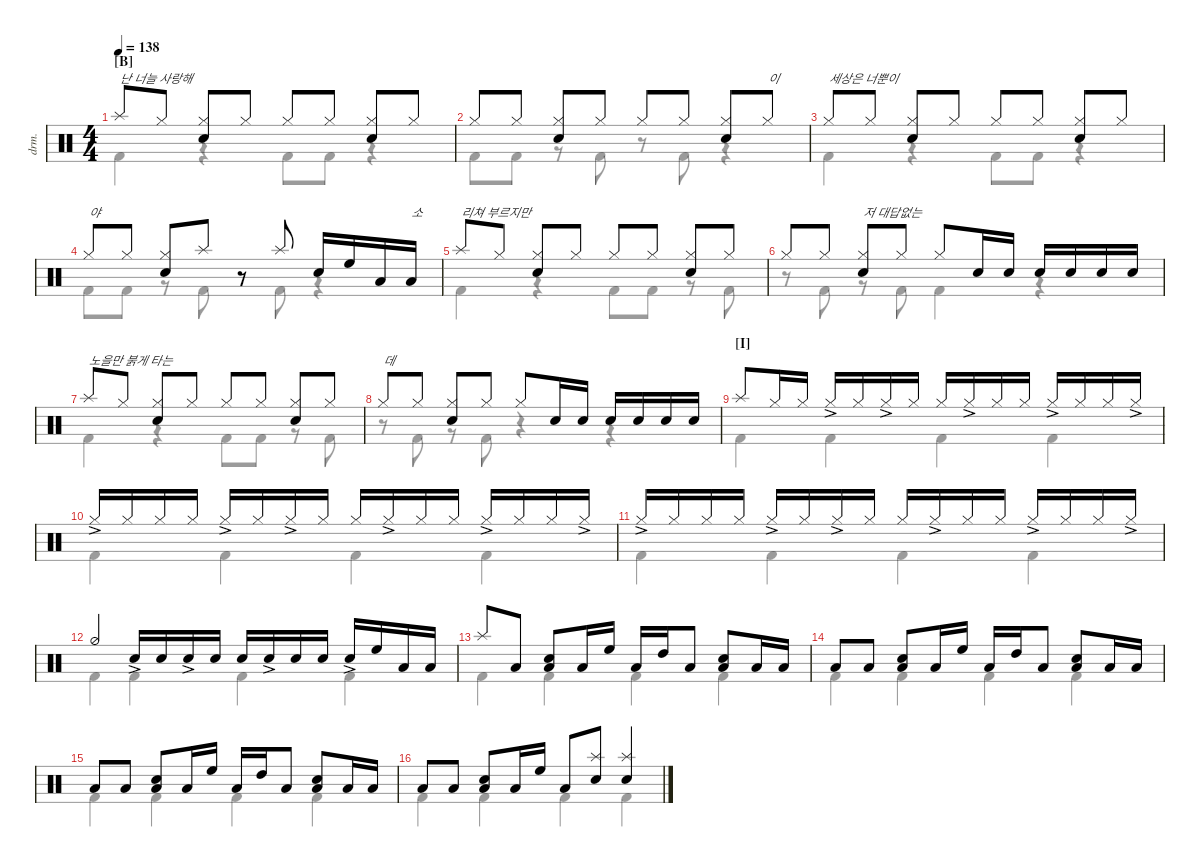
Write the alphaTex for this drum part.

\defaultSystemsLayout 4
\hideDynamics
\bracketExtendMode nobrackets
\track ("Drumkit" "drm.") {instrument percussion}
\staff {score}
\articulation defaults
\voice
\ts (4 4)
\section ("B" "")
\tempo 138
\clef neutral
\ks c "Splash (hit)".8{txt "난 너늘 사랑해" dy mf beam Up} "Hi-Hat (closed)".8{beam Up}
("Hi-Hat (closed)" "Snare (hit) 2").8{beam Up} "Hi-Hat (closed)".8{beam Up} "Hi-Hat (closed)".8{beam Up} "Hi-Hat (closed)".8{beam Up} ("Hi-Hat (closed)" "Snare (hit) 2").8{beam Up} "Hi-Hat (closed)".8{beam Up} |
"Hi-Hat (closed)".8{beam Up} "Hi-Hat (closed)".8{beam Up} ("Hi-Hat (closed)" "Snare (hit) 2").8{beam Up} "Hi-Hat (closed)".8{beam Up} "Hi-Hat (closed)".8{beam Up} "Hi-Hat (closed)".8{beam Up} ("Hi-Hat (closed)" "Snare (hit) 2").8{beam Up} "Hi-Hat (closed)".8{txt "이" beam Up} |
"Hi-Hat (closed)".8{txt "세상은 너뿐이" beam Up} "Hi-Hat (closed)".8{beam Up} ("Hi-Hat (closed)" "Snare (hit) 2").8{beam Up} "Hi-Hat (closed)".8{beam Up} "Hi-Hat (closed)".8{beam Up} "Hi-Hat (closed)".8{beam Up} ("Hi-Hat (closed)" "Snare (hit) 2").8{beam Up} "Hi-Hat (closed)".8{beam Up} |
"Hi-Hat (closed)".8{txt "야" beam Up} "Hi-Hat (closed)".8{beam Up} ("Hi-Hat (closed)" "Snare (hit) 2").8{beam Up} "Splash (hit)".8{beam Up} r.8{beam Up} "Splash (hit)".8{beam Up} "Snare (hit) 2".16{beam Up} "High Floor Tom (hit)".16{beam Up} "Low Tom (hit)".16{beam Up} "Low Tom (hit)".16{txt "소" beam Up} |
"Splash (hit)".8{txt "리쳐 부르지만" beam Up} "Hi-Hat (closed)".8{beam Up} ("Hi-Hat (closed)" "Snare (hit) 2").8{beam Up} "Hi-Hat (closed)".8{beam Up} "Hi-Hat (closed)".8{beam Up} "Hi-Hat (closed)".8{beam Up} ("Hi-Hat (closed)" "Snare (hit) 2").8{beam Up} "Hi-Hat (closed)".8{beam Up} |
"Hi-Hat (closed)".8{beam Up} "Hi-Hat (closed)".8{beam Up} ("Hi-Hat (closed)" "Snare (hit) 2").8{txt "저 대답없는" beam Up} "Hi-Hat (closed)".8{beam Up} "Hi-Hat (closed)".8{beam Up} "Snare (hit) 2".16{beam Up} "Snare (hit) 2".16{beam Up} "Snare (hit) 2".16{beam Up} "Snare (hit) 2".16{beam Up} "Snare (hit) 2".16{beam Up} "Snare (hit) 2".16{beam Up} |
"Splash (hit)".8{txt "노을만 붉게 타는" beam Up} "Hi-Hat (closed)".8{beam Up} ("Hi-Hat (closed)" "Snare (hit) 2").8{beam Up} "Hi-Hat (closed)".8{beam Up} "Hi-Hat (closed)".8{beam Up} "Hi-Hat (closed)".8{beam Up} ("Hi-Hat (closed)" "Snare (hit) 2").8{beam Up} "Hi-Hat (closed)".8{beam Up} |
"Hi-Hat (closed)".8{txt "데" beam Up} "Hi-Hat (closed)".8{beam Up} ("Hi-Hat (closed)" "Snare (hit) 2").8{beam Up} "Hi-Hat (closed)".8{beam Up} "Hi-Hat (closed)".8{beam Up} "Snare (hit) 2".16{beam Up} "Snare (hit) 2".16{beam Up} "Snare (hit) 2".16{beam Up} "Snare (hit) 2".16{beam Up} "Snare (hit) 2".16{beam Up} "Snare (hit) 2".16{beam Up} |
\section ("I" "")
"Splash (hit)".8{beam Up} "Hi-Hat (closed)".16{beam Up} "Hi-Hat (closed)".16{beam Up} "Hi-Hat (closed)"{ac}.16{beam Up} "Hi-Hat (closed)".16{beam Up} "Hi-Hat (closed)"{ac}.16{beam Up} "Hi-Hat (closed)".16{beam Up} "Hi-Hat (closed)".16{beam Up} "Hi-Hat (closed)"{ac}.16{beam Up} "Hi-Hat (closed)".16{beam Up} "Hi-Hat (closed)".16{beam Up} "Hi-Hat (closed)"{ac}.16{beam Up} "Hi-Hat (closed)".16{beam Up} "Hi-Hat (closed)".16{beam Up} "Hi-Hat (closed)"{ac}.16{beam Up} |
"Hi-Hat (closed)"{ac}.16{beam Up} "Hi-Hat (closed)".16{beam Up} "Hi-Hat (closed)".16{beam Up} "Hi-Hat (closed)".16{beam Up} "Hi-Hat (closed)"{ac}.16{beam Up} "Hi-Hat (closed)".16{beam Up} "Hi-Hat (closed)"{ac}.16{beam Up} "Hi-Hat (closed)".16{beam Up} "Hi-Hat (closed)".16{beam Up} "Hi-Hat (closed)"{ac}.16{beam Up} "Hi-Hat (closed)".16{beam Up} "Hi-Hat (closed)".16{beam Up} "Hi-Hat (closed)"{ac}.16{beam Up} "Hi-Hat (closed)".16{beam Up} "Hi-Hat (closed)".16{beam Up} "Hi-Hat (closed)"{ac}.16{beam Up} |
"Hi-Hat (closed)"{ac}.16{beam Up} "Hi-Hat (closed)".16{beam Up} "Hi-Hat (closed)".16{beam Up} "Hi-Hat (closed)".16{beam Up} "Hi-Hat (closed)"{ac}.16{beam Up} "Hi-Hat (closed)".16{beam Up} "Hi-Hat (closed)"{ac}.16{beam Up} "Hi-Hat (closed)".16{beam Up} "Hi-Hat (closed)".16{beam Up} "Hi-Hat (closed)"{ac}.16{beam Up} "Hi-Hat (closed)".16{beam Up} "Hi-Hat (closed)".16{beam Up} "Hi-Hat (closed)"{ac}.16{beam Up} "Hi-Hat (closed)".16{beam Up} "Hi-Hat (closed)".16{beam Up} "Hi-Hat (closed)"{ac}.16{beam Up} |
"Hi-Hat (half)".4{beam Up} "Snare (hit) 2"{ac}.16{beam Up} "Snare (hit) 2".16{beam Up} "Snare (hit) 2"{ac}.16{beam Up} "Snare (hit) 2".16{beam Up} "Snare (hit) 2".16{beam Up} "Snare (hit) 2"{ac}.16{beam Up} "Snare (hit) 2".16{beam Up} "Snare (hit) 2".16{beam Up} "Snare (hit) 2"{ac}.16{beam Up} "High Floor Tom (hit)".16{beam Up} "Low Tom (hit)".16{beam Up} "Low Tom (hit)".16{beam Up} |
"Splash (hit)".8{beam Up} "Low Tom (hit)".8{beam Up} ("Low Tom (hit)" "Snare (hit) 2").8{beam Up} "Low Tom (hit)".16{beam Up} "High Floor Tom (hit)".16{beam Up} "Low Tom (hit)".16{beam Up} "High Tom (hit)".16{beam Up} "Low Tom (hit)".8{beam Up} ("Low Tom (hit)" "Snare (hit) 2").8{beam Up} "Low Tom (hit)".16{beam Up} "Low Tom (hit)".16{beam Up} |
"Low Tom (hit)".8{beam Up} "Low Tom (hit)".8{beam Up} ("Low Tom (hit)" "Snare (hit) 2").8{beam Up} "Low Tom (hit)".16{beam Up} "High Floor Tom (hit)".16{beam Up} "Low Tom (hit)".16{beam Up} "High Tom (hit)".16{beam Up} "Low Tom (hit)".8{beam Up} ("Low Tom (hit)" "Snare (hit) 2").8{beam Up} "Low Tom (hit)".16{beam Up} "Low Tom (hit)".16{beam Up} |
"Low Tom (hit)".8{beam Up} "Low Tom (hit)".8{beam Up} ("Low Tom (hit)" "Snare (hit) 2").8{beam Up} "Low Tom (hit)".16{beam Up} "High Floor Tom (hit)".16{beam Up} "Low Tom (hit)".16{beam Up} "High Tom (hit)".16{beam Up} "Low Tom (hit)".8{beam Up} ("Low Tom (hit)" "Snare (hit) 2").8{beam Up} "Low Tom (hit)".16{beam Up} "Low Tom (hit)".16{beam Up} |
"Low Tom (hit)".8{beam Up} "Low Tom (hit)".8{beam Up} ("Low Tom (hit)" "Snare (hit) 2").8{beam Up} "Low Tom (hit)".16{beam Up} "High Floor Tom (hit)".16{beam Up} "Low Tom (hit)".8{beam Up} ("Snare (hit) 2" "Splash (hit)").8{beam Up} ("Snare (hit) 2" "Splash (hit)").4{beam Up}
\voice
\clef neutral
\ottava regular
\simile none
\ks c
|
|
|
|
|
|
|
|
|
|
|
|
|
|
|
\voice
\clef neutral
\ottava regular
\simile none
\ks c "Kick (hit) 2".4{dy mf beam Down}
r.4{beam Down} "Kick (hit) 2".8{beam Down} "Kick (hit) 2".8{beam Down} r.4{beam Down} |
"Kick (hit) 2".8{beam Down} "Kick (hit) 2".8{beam Down} r.8{beam Down} "Kick (hit) 2".8{beam Down} r.8{beam Down} "Kick (hit) 2".8{beam Down} r.4{beam Down} |
"Kick (hit) 2".4{beam Down} r.4{beam Down} "Kick (hit) 2".8{beam Down} "Kick (hit) 2".8{beam Down} r.4{beam Down} |
"Kick (hit) 2".8{beam Down} "Kick (hit) 2".8{beam Down} r.8{beam Down} "Kick (hit) 2".8{beam Down} r.8{beam Down} "Kick (hit) 2".8{beam Down} r.4{beam Down} |
"Kick (hit) 2".4{beam Down} r.4{beam Down} "Kick (hit) 2".8{beam Down} "Kick (hit) 2".8{beam Down} r.8{beam Down} "Kick (hit) 2".8{beam Down} |
r.8{beam Down} "Kick (hit) 2".8{beam Down} r.8{beam Down} "Kick (hit) 2".8{beam Down} "Kick (hit) 2".4{beam Down} r.4{beam Down} |
"Kick (hit) 2".4{beam Down} r.4{beam Down} "Kick (hit) 2".8{beam Down} "Kick (hit) 2".8{beam Down} r.8{beam Down} "Kick (hit) 2".8{beam Down} |
r.8{beam Down} "Kick (hit) 2".8{beam Down} r.8{beam Down} "Kick (hit) 2".8{beam Down} r.4{beam Down} r.4{beam Down} |
"Kick (hit) 2".4{beam Down} "Kick (hit) 2".4{beam Down} "Kick (hit) 2".4{beam Down} "Kick (hit) 2".4{beam Down} |
"Kick (hit) 2".4{beam Down} "Kick (hit) 2".4{beam Down} "Kick (hit) 2".4{beam Down} "Kick (hit) 2".4{beam Down} |
"Kick (hit) 2".4{beam Down} "Kick (hit) 2".4{beam Down} "Kick (hit) 2".4{beam Down} "Kick (hit) 2".4{beam Down} |
"Kick (hit) 2".4{beam Down} "Kick (hit) 2".4{beam Down} "Kick (hit) 2".4{beam Down} "Kick (hit) 2".4{beam Down} |
"Kick (hit) 2".4{beam Down} "Kick (hit) 2".4{beam Down} "Kick (hit) 2".4{beam Down} "Kick (hit) 2".4{beam Down} |
"Kick (hit) 2".4{beam Down} "Kick (hit) 2".4{beam Down} "Kick (hit) 2".4{beam Down} "Kick (hit) 2".4{beam Down} |
"Kick (hit) 2".4{beam Down} "Kick (hit) 2".4{beam Down} "Kick (hit) 2".4{beam Down} "Kick (hit) 2".4{beam Down} |
"Kick (hit) 2".4{beam Down} "Kick (hit) 2".4{beam Down} "Kick (hit) 2".4{beam Down} "Kick (hit) 2".4{beam Down}
